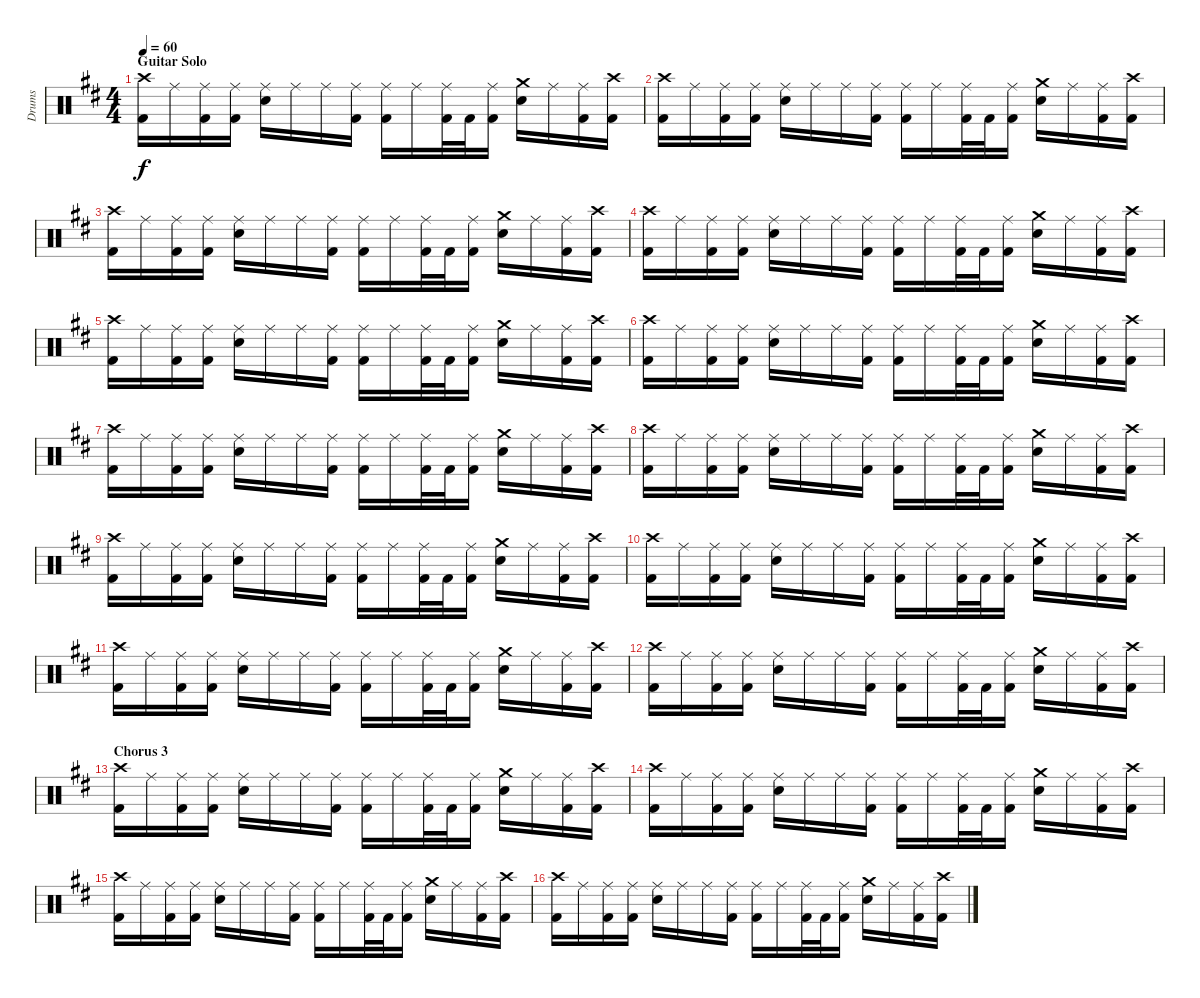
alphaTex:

\track ("Drums" "Drums") {instrument percussion}
\staff {score}
\articulation defaults
\ts (4 4)
\section ("" "Guitar Solo")
\tempo 60
\clef neutral
\ks bminor
("Crash high (hit)" "Kick (hit) 2").16{dy f} "Ride (middle)".16 ("Ride (middle)" "Kick (hit) 2").16 ("Ride (middle)" "Kick (hit) 2").16 ("Ride (middle)" "Snare (hit) 2").16 "Ride (middle)".16 "Ride (middle)".16 ("Ride (middle)" "Kick (hit) 2").16 ("Ride (middle)" "Kick (hit) 2").16 "Ride (middle)".16 ("Ride (middle)" "Kick (hit) 2").32 "Kick (hit) 2".32 ("Ride (middle)" "Kick (hit) 2").16 ("Crash medium (hit)" "Snare (hit) 2").16 "Ride (middle)".16 ("Ride (middle)" "Kick (hit) 2").16 ("Crash high (hit)" "Kick (hit) 2").16 |
("Crash high (hit)" "Kick (hit) 2").16 "Ride (middle)".16 ("Ride (middle)" "Kick (hit) 2").16 ("Ride (middle)" "Kick (hit) 2").16 ("Ride (middle)" "Snare (hit) 2").16 "Ride (middle)".16 "Ride (middle)".16 ("Ride (middle)" "Kick (hit) 2").16 ("Ride (middle)" "Kick (hit) 2").16 "Ride (middle)".16 ("Ride (middle)" "Kick (hit) 2").32 "Kick (hit) 2".32 ("Ride (middle)" "Kick (hit) 2").16 ("Crash medium (hit)" "Snare (hit) 2").16 "Ride (middle)".16 ("Ride (middle)" "Kick (hit) 2").16 ("Crash high (hit)" "Kick (hit) 2").16 |
("Crash high (hit)" "Kick (hit) 2").16 "Ride (middle)".16 ("Ride (middle)" "Kick (hit) 2").16 ("Ride (middle)" "Kick (hit) 2").16 ("Ride (middle)" "Snare (hit) 2").16 "Ride (middle)".16 "Ride (middle)".16 ("Ride (middle)" "Kick (hit) 2").16 ("Ride (middle)" "Kick (hit) 2").16 "Ride (middle)".16 ("Ride (middle)" "Kick (hit) 2").32 "Kick (hit) 2".32 ("Ride (middle)" "Kick (hit) 2").16 ("Crash medium (hit)" "Snare (hit) 2").16 "Ride (middle)".16 ("Ride (middle)" "Kick (hit) 2").16 ("Crash high (hit)" "Kick (hit) 2").16 |
("Crash high (hit)" "Kick (hit) 2").16 "Ride (middle)".16 ("Ride (middle)" "Kick (hit) 2").16 ("Ride (middle)" "Kick (hit) 2").16 ("Ride (middle)" "Snare (hit) 2").16 "Ride (middle)".16 "Ride (middle)".16 ("Ride (middle)" "Kick (hit) 2").16 ("Ride (middle)" "Kick (hit) 2").16 "Ride (middle)".16 ("Ride (middle)" "Kick (hit) 2").32 "Kick (hit) 2".32 ("Ride (middle)" "Kick (hit) 2").16 ("Crash medium (hit)" "Snare (hit) 2").16 "Ride (middle)".16 ("Ride (middle)" "Kick (hit) 2").16 ("Crash high (hit)" "Kick (hit) 2").16 |
("Crash high (hit)" "Kick (hit) 2").16 "Ride (middle)".16 ("Ride (middle)" "Kick (hit) 2").16 ("Ride (middle)" "Kick (hit) 2").16 ("Ride (middle)" "Snare (hit) 2").16 "Ride (middle)".16 "Ride (middle)".16 ("Ride (middle)" "Kick (hit) 2").16 ("Ride (middle)" "Kick (hit) 2").16 "Ride (middle)".16 ("Ride (middle)" "Kick (hit) 2").32 "Kick (hit) 2".32 ("Ride (middle)" "Kick (hit) 2").16 ("Crash medium (hit)" "Snare (hit) 2").16 "Ride (middle)".16 ("Ride (middle)" "Kick (hit) 2").16 ("Crash high (hit)" "Kick (hit) 2").16 |
("Crash high (hit)" "Kick (hit) 2").16 "Ride (middle)".16 ("Ride (middle)" "Kick (hit) 2").16 ("Ride (middle)" "Kick (hit) 2").16 ("Ride (middle)" "Snare (hit) 2").16 "Ride (middle)".16 "Ride (middle)".16 ("Ride (middle)" "Kick (hit) 2").16 ("Ride (middle)" "Kick (hit) 2").16 "Ride (middle)".16 ("Ride (middle)" "Kick (hit) 2").32 "Kick (hit) 2".32 ("Ride (middle)" "Kick (hit) 2").16 ("Crash medium (hit)" "Snare (hit) 2").16 "Ride (middle)".16 ("Ride (middle)" "Kick (hit) 2").16 ("Crash high (hit)" "Kick (hit) 2").16 |
("Crash high (hit)" "Kick (hit) 2").16 "Ride (middle)".16 ("Ride (middle)" "Kick (hit) 2").16 ("Ride (middle)" "Kick (hit) 2").16 ("Ride (middle)" "Snare (hit) 2").16 "Ride (middle)".16 "Ride (middle)".16 ("Ride (middle)" "Kick (hit) 2").16 ("Ride (middle)" "Kick (hit) 2").16 "Ride (middle)".16 ("Ride (middle)" "Kick (hit) 2").32 "Kick (hit) 2".32 ("Ride (middle)" "Kick (hit) 2").16 ("Crash medium (hit)" "Snare (hit) 2").16 "Ride (middle)".16 ("Ride (middle)" "Kick (hit) 2").16 ("Crash high (hit)" "Kick (hit) 2").16 |
("Crash high (hit)" "Kick (hit) 2").16 "Ride (middle)".16 ("Ride (middle)" "Kick (hit) 2").16 ("Ride (middle)" "Kick (hit) 2").16 ("Ride (middle)" "Snare (hit) 2").16 "Ride (middle)".16 "Ride (middle)".16 ("Ride (middle)" "Kick (hit) 2").16 ("Ride (middle)" "Kick (hit) 2").16 "Ride (middle)".16 ("Ride (middle)" "Kick (hit) 2").32 "Kick (hit) 2".32 ("Ride (middle)" "Kick (hit) 2").16 ("Crash medium (hit)" "Snare (hit) 2").16 "Ride (middle)".16 ("Ride (middle)" "Kick (hit) 2").16 ("Crash high (hit)" "Kick (hit) 2").16 |
("Crash high (hit)" "Kick (hit) 2").16 "Ride (middle)".16 ("Ride (middle)" "Kick (hit) 2").16 ("Ride (middle)" "Kick (hit) 2").16 ("Ride (middle)" "Snare (hit) 2").16 "Ride (middle)".16 "Ride (middle)".16 ("Ride (middle)" "Kick (hit) 2").16 ("Ride (middle)" "Kick (hit) 2").16 "Ride (middle)".16 ("Ride (middle)" "Kick (hit) 2").32 "Kick (hit) 2".32 ("Ride (middle)" "Kick (hit) 2").16 ("Crash medium (hit)" "Snare (hit) 2").16 "Ride (middle)".16 ("Ride (middle)" "Kick (hit) 2").16 ("Crash high (hit)" "Kick (hit) 2").16 |
("Crash high (hit)" "Kick (hit) 2").16 "Ride (middle)".16 ("Ride (middle)" "Kick (hit) 2").16 ("Ride (middle)" "Kick (hit) 2").16 ("Ride (middle)" "Snare (hit) 2").16 "Ride (middle)".16 "Ride (middle)".16 ("Ride (middle)" "Kick (hit) 2").16 ("Ride (middle)" "Kick (hit) 2").16 "Ride (middle)".16 ("Ride (middle)" "Kick (hit) 2").32 "Kick (hit) 2".32 ("Ride (middle)" "Kick (hit) 2").16 ("Crash medium (hit)" "Snare (hit) 2").16 "Ride (middle)".16 ("Ride (middle)" "Kick (hit) 2").16 ("Crash high (hit)" "Kick (hit) 2").16 |
("Crash high (hit)" "Kick (hit) 2").16 "Ride (middle)".16 ("Ride (middle)" "Kick (hit) 2").16 ("Ride (middle)" "Kick (hit) 2").16 ("Ride (middle)" "Snare (hit) 2").16 "Ride (middle)".16 "Ride (middle)".16 ("Ride (middle)" "Kick (hit) 2").16 ("Ride (middle)" "Kick (hit) 2").16 "Ride (middle)".16 ("Ride (middle)" "Kick (hit) 2").32 "Kick (hit) 2".32 ("Ride (middle)" "Kick (hit) 2").16 ("Crash medium (hit)" "Snare (hit) 2").16 "Ride (middle)".16 ("Ride (middle)" "Kick (hit) 2").16 ("Crash high (hit)" "Kick (hit) 2").16 |
("Crash high (hit)" "Kick (hit) 2").16 "Ride (middle)".16 ("Ride (middle)" "Kick (hit) 2").16 ("Ride (middle)" "Kick (hit) 2").16 ("Ride (middle)" "Snare (hit) 2").16 "Ride (middle)".16 "Ride (middle)".16 ("Ride (middle)" "Kick (hit) 2").16 ("Ride (middle)" "Kick (hit) 2").16 "Ride (middle)".16 ("Ride (middle)" "Kick (hit) 2").32 "Kick (hit) 2".32 ("Ride (middle)" "Kick (hit) 2").16 ("Crash medium (hit)" "Snare (hit) 2").16 "Ride (middle)".16 ("Ride (middle)" "Kick (hit) 2").16 ("Crash high (hit)" "Kick (hit) 2").16 |
\section ("" "Chorus 3")
("Crash high (hit)" "Kick (hit) 2").16 "Ride (middle)".16 ("Ride (middle)" "Kick (hit) 2").16 ("Ride (middle)" "Kick (hit) 2").16 ("Ride (middle)" "Snare (hit) 2").16 "Ride (middle)".16 "Ride (middle)".16 ("Ride (middle)" "Kick (hit) 2").16 ("Ride (middle)" "Kick (hit) 2").16 "Ride (middle)".16 ("Ride (middle)" "Kick (hit) 2").32 "Kick (hit) 2".32 ("Ride (middle)" "Kick (hit) 2").16 ("Crash medium (hit)" "Snare (hit) 2").16 "Ride (middle)".16 ("Ride (middle)" "Kick (hit) 2").16 ("Crash high (hit)" "Kick (hit) 2").16 |
("Crash high (hit)" "Kick (hit) 2").16 "Ride (middle)".16 ("Ride (middle)" "Kick (hit) 2").16 ("Ride (middle)" "Kick (hit) 2").16 ("Ride (middle)" "Snare (hit) 2").16 "Ride (middle)".16 "Ride (middle)".16 ("Ride (middle)" "Kick (hit) 2").16 ("Ride (middle)" "Kick (hit) 2").16 "Ride (middle)".16 ("Ride (middle)" "Kick (hit) 2").32 "Kick (hit) 2".32 ("Ride (middle)" "Kick (hit) 2").16 ("Crash medium (hit)" "Snare (hit) 2").16 "Ride (middle)".16 ("Ride (middle)" "Kick (hit) 2").16 ("Crash high (hit)" "Kick (hit) 2").16 |
("Crash high (hit)" "Kick (hit) 2").16 "Ride (middle)".16 ("Ride (middle)" "Kick (hit) 2").16 ("Ride (middle)" "Kick (hit) 2").16 ("Ride (middle)" "Snare (hit) 2").16 "Ride (middle)".16 "Ride (middle)".16 ("Ride (middle)" "Kick (hit) 2").16 ("Ride (middle)" "Kick (hit) 2").16 "Ride (middle)".16 ("Ride (middle)" "Kick (hit) 2").32 "Kick (hit) 2".32 ("Ride (middle)" "Kick (hit) 2").16 ("Crash medium (hit)" "Snare (hit) 2").16 "Ride (middle)".16 ("Ride (middle)" "Kick (hit) 2").16 ("Crash high (hit)" "Kick (hit) 2").16 |
("Crash high (hit)" "Kick (hit) 2").16 "Ride (middle)".16 ("Ride (middle)" "Kick (hit) 2").16 ("Ride (middle)" "Kick (hit) 2").16 ("Ride (middle)" "Snare (hit) 2").16 "Ride (middle)".16 "Ride (middle)".16 ("Ride (middle)" "Kick (hit) 2").16 ("Ride (middle)" "Kick (hit) 2").16 "Ride (middle)".16 ("Ride (middle)" "Kick (hit) 2").32 "Kick (hit) 2".32 ("Ride (middle)" "Kick (hit) 2").16 ("Crash medium (hit)" "Snare (hit) 2").16 "Ride (middle)".16 ("Ride (middle)" "Kick (hit) 2").16 ("Crash high (hit)" "Kick (hit) 2").16
